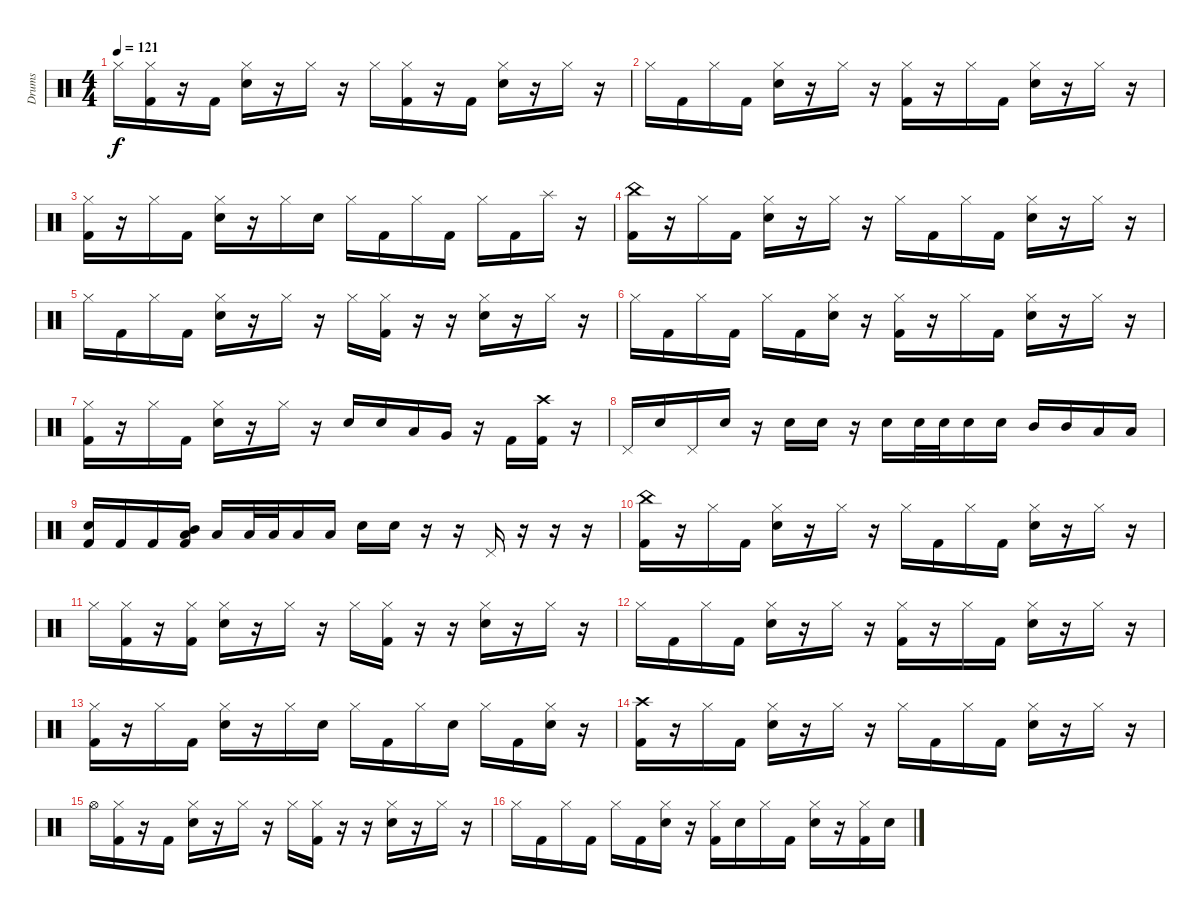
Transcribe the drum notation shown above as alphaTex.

\track ("Drums" "Drums") {instrument percussion}
\staff {score}
\articulation defaults
\ts (4 4)
\tempo 121
\clef neutral
\ks c "Hi-Hat (closed)".16{dy f}
("Hi-Hat (closed)" "Kick (hit) 2").16 r.16 "Kick (hit) 2".16 ("Hi-Hat (closed)" "Snare (hit) 2").16 r.16 "Hi-Hat (closed)".16 r.16 "Hi-Hat (closed)".16 ("Hi-Hat (closed)" "Kick (hit) 2").16 r.16 "Kick (hit) 2".16 ("Hi-Hat (closed)" "Snare (hit) 2").16 r.16 "Hi-Hat (closed)".16 r.16 |
"Hi-Hat (closed)".16 "Kick (hit) 2".16 "Hi-Hat (closed)".16 "Kick (hit) 2".16 ("Hi-Hat (closed)" "Snare (hit) 2").16 r.16 "Hi-Hat (closed)".16 r.16 ("Hi-Hat (closed)" "Kick (hit) 2").16 r.16 "Hi-Hat (closed)".16 "Kick (hit) 2".16 ("Hi-Hat (closed)" "Snare (hit) 2").16 r.16 "Hi-Hat (closed)".16 r.16 |
("Hi-Hat (closed)" "Kick (hit) 2").16 r.16 "Hi-Hat (closed)".16 "Kick (hit) 2".16 ("Hi-Hat (closed)" "Snare (hit) 2").16 r.16 "Hi-Hat (closed)".16 "Snare (hit) 2".16 "Hi-Hat (closed)".16 "Kick (hit) 2".16 "Hi-Hat (closed)".16 "Kick (hit) 2".16 "Hi-Hat (closed)".16 "Kick (hit) 2".16 "Splash (hit)".16 r.16 |
("China (hit)" "Kick (hit) 2").16 r.16 "Hi-Hat (closed)".16 "Kick (hit) 2".16 ("Hi-Hat (closed)" "Snare (hit) 2").16 r.16 "Hi-Hat (closed)".16 r.16 "Hi-Hat (closed)".16 "Kick (hit) 2".16 "Hi-Hat (closed)".16 "Kick (hit) 2".16 ("Hi-Hat (closed)" "Snare (hit) 2").16 r.16 "Hi-Hat (closed)".16 r.16 |
"Hi-Hat (closed)".16 "Kick (hit) 2".16 "Hi-Hat (closed)".16 "Kick (hit) 2".16 ("Hi-Hat (closed)" "Snare (hit) 2").16 r.16 "Hi-Hat (closed)".16 r.16 "Hi-Hat (closed)".16 ("Hi-Hat (closed)" "Kick (hit) 2").16 r.16 r.16 ("Hi-Hat (closed)" "Snare (hit) 2").16 r.16 "Hi-Hat (closed)".16 r.16 |
"Hi-Hat (closed)".16 "Kick (hit) 2".16 "Hi-Hat (closed)".16 "Kick (hit) 2".16 "Hi-Hat (closed)".16 "Kick (hit) 2".16 ("Hi-Hat (closed)" "Snare (hit) 2").16 r.16 ("Hi-Hat (closed)" "Kick (hit) 2").16 r.16 "Hi-Hat (closed)".16 "Kick (hit) 2".16 ("Hi-Hat (closed)" "Snare (hit) 2").16 r.16 "Hi-Hat (closed)".16 r.16 |
("Hi-Hat (closed)" "Kick (hit) 2").16 r.16 "Hi-Hat (closed)".16 "Kick (hit) 2".16 ("Hi-Hat (closed)" "Snare (hit) 2").16 r.16 "Hi-Hat (closed)".16 r.16 "Snare (hit) 2".16 "Snare (hit) 2".16 "Low Tom (hit)".16 "Very Low Tom (hit)".16 r.16 "Kick (hit) 2".16 ("Crash high (hit)" "Kick (hit) 2").16 r.16 |
"Pedal Hi-Hat (hit)".16 "Snare (hit) 2".16 "Pedal Hi-Hat (hit)".16 "Snare (hit) 2".16 r.16 "Snare (hit) 2".16 "Snare (hit) 2".16 r.16 "Snare (hit) 2".16 "Snare (hit) 2".32 "Snare (hit) 2".32 "Snare (hit) 2".16 "Snare (hit) 2".16 "Mid Tom (hit)".16 "Mid Tom (hit)".16 "Low Tom (hit)".16 "Low Tom (hit)".16 |
("Snare (hit) 2" "Kick (hit) 2").16 "Kick (hit) 2".16 "Kick (hit) 2".16 ("Low Tom (hit)" "Mid Tom (hit)" "Kick (hit) 2").16 "Low Tom (hit)".16 "Low Tom (hit)".32 "Low Tom (hit)".32 "Low Tom (hit)".16 "Low Tom (hit)".16 "Snare (hit) 2".16 "Snare (hit) 2".16 r.16 r.16 "Pedal Hi-Hat (hit)".16 r.16 r.16 r.16 |
("China (hit)" "Kick (hit) 2").16 r.16 "Hi-Hat (closed)".16 "Kick (hit) 2".16 ("Hi-Hat (closed)" "Snare (hit) 2").16 r.16 "Hi-Hat (closed)".16 r.16 "Hi-Hat (closed)".16 "Kick (hit) 2".16 "Hi-Hat (closed)".16 "Kick (hit) 2".16 ("Hi-Hat (closed)" "Snare (hit) 2").16 r.16 "Hi-Hat (closed)".16 r.16 |
"Hi-Hat (closed)".16 ("Hi-Hat (closed)" "Kick (hit) 2").16 r.16 ("Hi-Hat (closed)" "Kick (hit) 2").16 ("Hi-Hat (closed)" "Snare (hit) 2").16 r.16 "Hi-Hat (closed)".16 r.16 "Hi-Hat (closed)".16 ("Hi-Hat (closed)" "Kick (hit) 2").16 r.16 r.16 ("Hi-Hat (closed)" "Snare (hit) 2").16 r.16 "Hi-Hat (closed)".16 r.16 |
"Hi-Hat (closed)".16 "Kick (hit) 2".16 "Hi-Hat (closed)".16 "Kick (hit) 2".16 ("Hi-Hat (closed)" "Snare (hit) 2").16 r.16 "Hi-Hat (closed)".16 r.16 ("Hi-Hat (closed)" "Kick (hit) 2").16 r.16 "Hi-Hat (closed)".16 "Kick (hit) 2".16 ("Hi-Hat (closed)" "Snare (hit) 2").16 r.16 "Hi-Hat (closed)".16 r.16 |
("Hi-Hat (closed)" "Kick (hit) 2").16 r.16 "Hi-Hat (closed)".16 "Kick (hit) 2".16 ("Hi-Hat (closed)" "Snare (hit) 2").16 r.16 "Hi-Hat (closed)".16 "Snare (hit) 2".16 "Hi-Hat (closed)".16 "Kick (hit) 2".16 "Hi-Hat (closed)".16 "Snare (hit) 2".16 "Hi-Hat (closed)".16 "Kick (hit) 2".16 ("Hi-Hat (closed)" "Snare (hit) 2").16 r.16 |
("Crash high (hit)" "Kick (hit) 2").16 r.16 "Hi-Hat (closed)".16 "Kick (hit) 2".16 ("Hi-Hat (closed)" "Snare (hit) 2").16 r.16 "Hi-Hat (closed)".16 r.16 "Hi-Hat (closed)".16 "Kick (hit) 2".16 "Hi-Hat (closed)".16 "Kick (hit) 2".16 ("Hi-Hat (closed)" "Snare (hit) 2").16 r.16 "Hi-Hat (closed)".16 r.16 |
"Hi-Hat (open)".16 ("Hi-Hat (closed)" "Kick (hit) 2").16 r.16 "Kick (hit) 2".16 ("Hi-Hat (closed)" "Snare (hit) 2").16 r.16 "Hi-Hat (closed)".16 r.16 "Hi-Hat (closed)".16 ("Hi-Hat (closed)" "Kick (hit) 2").16 r.16 r.16 ("Hi-Hat (closed)" "Snare (hit) 2").16 r.16 "Hi-Hat (closed)".16 r.16 |
"Hi-Hat (closed)".16 "Kick (hit) 2".16 "Hi-Hat (closed)".16 "Kick (hit) 2".16 "Hi-Hat (closed)".16 "Kick (hit) 2".16 ("Hi-Hat (closed)" "Snare (hit) 2").16 r.16 ("Hi-Hat (closed)" "Kick (hit) 2").16 "Snare (hit) 2".16 "Hi-Hat (closed)".16 "Kick (hit) 2".16 ("Hi-Hat (closed)" "Snare (hit) 2").16 r.16 ("Hi-Hat (closed)" "Kick (hit) 2").16 "Snare (hit) 2".16
